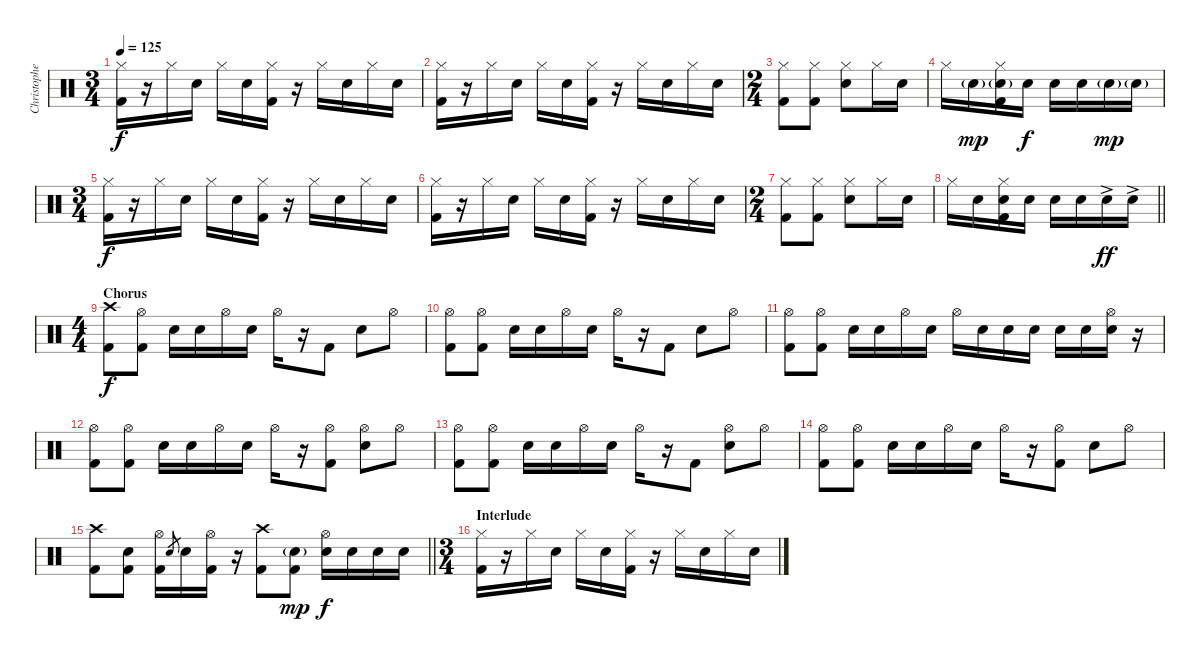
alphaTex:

\track ("Christopher - Drums" "Christophe") {instrument percussion}
\staff {score}
\articulation defaults
\ts (3 4)
\tempo 125
\clef neutral
\ks c
("Hi-Hat (closed)" "Kick (hit) 2").16{dy f} r.16 "Hi-Hat (closed)".16 "Electric Snare (hit)".16 "Hi-Hat (closed)".16 "Electric Snare (hit)".16 ("Hi-Hat (closed)" "Kick (hit) 2").16 r.16 "Hi-Hat (closed)".16 "Electric Snare (hit)".16 "Hi-Hat (closed)".16 "Electric Snare (hit)".16 |
("Hi-Hat (closed)" "Kick (hit) 2").16 r.16 "Hi-Hat (closed)".16 "Electric Snare (hit)".16 "Hi-Hat (closed)".16 "Electric Snare (hit)".16 ("Hi-Hat (closed)" "Kick (hit) 2").16 r.16 "Hi-Hat (closed)".16 "Electric Snare (hit)".16 "Hi-Hat (closed)".16 "Electric Snare (hit)".16 |
\ts (2 4)
("Hi-Hat (closed)" "Kick (hit) 2").8 ("Hi-Hat (closed)" "Kick (hit) 2").8 ("Hi-Hat (closed)" "Electric Snare (hit)").8 "Hi-Hat (closed)".16 "Electric Snare (hit)".16 |
"Hi-Hat (closed)".16 "Electric Snare (hit)"{g}.16{dy mp} ("Hi-Hat (closed)" "Electric Snare (hit)"{g} "Kick (hit) 2").16 "Electric Snare (hit)".16{dy f} "Electric Snare (hit)".16 "Electric Snare (hit)".16 "Electric Snare (hit)"{g}.16{dy mp} "Electric Snare (hit)"{g}.16 |
\ts (3 4)
("Hi-Hat (closed)" "Kick (hit) 2").16{dy f} r.16 "Hi-Hat (closed)".16 "Electric Snare (hit)".16 "Hi-Hat (closed)".16 "Electric Snare (hit)".16 ("Hi-Hat (closed)" "Kick (hit) 2").16 r.16 "Hi-Hat (closed)".16 "Electric Snare (hit)".16 "Hi-Hat (closed)".16 "Electric Snare (hit)".16 |
("Hi-Hat (closed)" "Kick (hit) 2").16 r.16 "Hi-Hat (closed)".16 "Electric Snare (hit)".16 "Hi-Hat (closed)".16 "Electric Snare (hit)".16 ("Hi-Hat (closed)" "Kick (hit) 2").16 r.16 "Hi-Hat (closed)".16 "Electric Snare (hit)".16 "Hi-Hat (closed)".16 "Electric Snare (hit)".16 |
\ts (2 4)
("Hi-Hat (closed)" "Kick (hit) 2").8 ("Hi-Hat (closed)" "Kick (hit) 2").8 ("Hi-Hat (closed)" "Electric Snare (hit)").8 "Hi-Hat (closed)".16 "Electric Snare (hit)".16 |
\barLineRight lightlight "Hi-Hat (closed)".16 "Electric Snare (hit)".16
("Hi-Hat (closed)" "Electric Snare (hit)" "Kick (hit) 2").16 "Electric Snare (hit)".16 "Electric Snare (hit)".16 "Electric Snare (hit)".16 "Electric Snare (hit)"{ac}.16{dy ff} "Electric Snare (hit)"{ac}.16 |
\ts (4 4)
\section ("" "Chorus")
("Crash high (hit)" "Kick (hit) 2").8{dy f} ("Hi-Hat (open)" "Kick (hit) 2").8 "Electric Snare (hit)".16 "Electric Snare (hit)".16 "Hi-Hat (open)".16 "Electric Snare (hit)".16 "Hi-Hat (open)".16 r.16 "Kick (hit) 2".8 "Electric Snare (hit)".8 "Hi-Hat (open)".8 |
("Hi-Hat (open)" "Kick (hit) 2").8 ("Hi-Hat (open)" "Kick (hit) 2").8 "Electric Snare (hit)".16 "Electric Snare (hit)".16 "Hi-Hat (open)".16 "Electric Snare (hit)".16 "Hi-Hat (open)".16 r.16 "Kick (hit) 2".8 "Electric Snare (hit)".8 "Hi-Hat (open)".8 |
("Hi-Hat (open)" "Kick (hit) 2").8 ("Hi-Hat (open)" "Kick (hit) 2").8 "Electric Snare (hit)".16 "Electric Snare (hit)".16 "Hi-Hat (open)".16 "Electric Snare (hit)".16 "Hi-Hat (open)".16 "Electric Snare (hit)".16 "Electric Snare (hit)".16 "Electric Snare (hit)".16 "Electric Snare (hit)".16 "Electric Snare (hit)".16 ("Hi-Hat (open)" "Electric Snare (hit)").16 r.16 |
("Hi-Hat (open)" "Kick (hit) 2").8 ("Hi-Hat (open)" "Kick (hit) 2").8 "Electric Snare (hit)".16 "Electric Snare (hit)".16 "Hi-Hat (open)".16 "Electric Snare (hit)".16 "Hi-Hat (open)".16 r.16 ("Hi-Hat (open)" "Kick (hit) 2").8 ("Hi-Hat (open)" "Electric Snare (hit)").8 "Hi-Hat (open)".8 |
("Hi-Hat (open)" "Kick (hit) 2").8 ("Hi-Hat (open)" "Kick (hit) 2").8 "Electric Snare (hit)".16 "Electric Snare (hit)".16 "Hi-Hat (open)".16 "Electric Snare (hit)".16 "Hi-Hat (open)".16 r.16 "Kick (hit) 2".8 ("Hi-Hat (open)" "Electric Snare (hit)").8 "Hi-Hat (open)".8 |
("Hi-Hat (open)" "Kick (hit) 2").8 ("Hi-Hat (open)" "Kick (hit) 2").8 "Electric Snare (hit)".16 "Electric Snare (hit)".16 "Hi-Hat (open)".16 "Electric Snare (hit)".16 "Hi-Hat (open)".16 r.16 ("Hi-Hat (open)" "Kick (hit) 2").8 "Electric Snare (hit)".8 "Hi-Hat (open)".8 |
\barLineRight lightlight
("Crash high (hit)" "Kick (hit) 2").8 ("Electric Snare (hit)" "Kick (hit) 2").8 ("Hi-Hat (open)" "Kick (hit) 2").16 "Electric Snare (hit)".8{gr} "Electric Snare (hit)".16 ("Hi-Hat (open)" "Kick (hit) 2").16 r.16 ("Crash high (hit)" "Kick (hit) 2").8 ("Electric Snare (hit)"{g} "Kick (hit) 2").8{dy mp} ("Hi-Hat (open)" "Electric Snare (hit)").16{dy f} "Electric Snare (hit)".16 "Electric Snare (hit)".16 "Electric Snare (hit)".16 |
\ts (3 4)
\section ("" "Interlude")
("Hi-Hat (closed)" "Kick (hit) 2").16 r.16 "Hi-Hat (closed)".16 "Electric Snare (hit)".16 "Hi-Hat (closed)".16 "Electric Snare (hit)".16 ("Hi-Hat (closed)" "Kick (hit) 2").16 r.16 "Hi-Hat (closed)".16 "Electric Snare (hit)".16 "Hi-Hat (closed)".16 "Electric Snare (hit)".16
